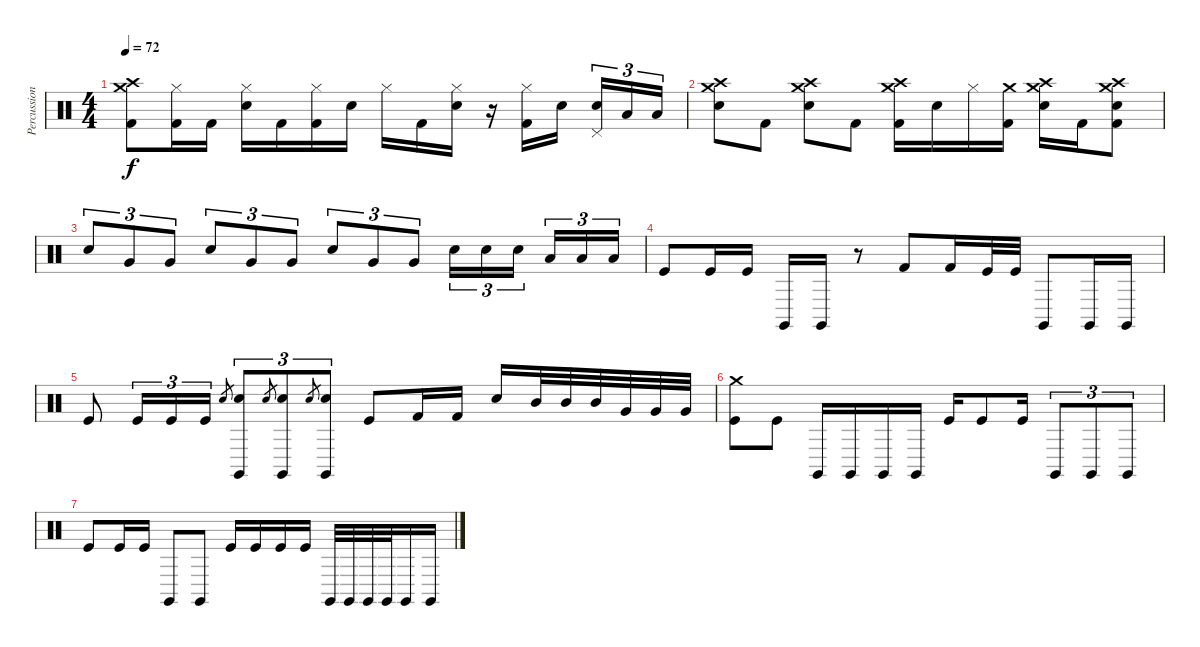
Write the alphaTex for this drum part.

\track ("Percussion" "Percussion") {instrument percussion}
\staff {score}
\articulation defaults
\ts (4 4)
\tempo 72
\clef neutral
\ks c
("Crash medium (hit)" "Crash high (hit)" "Kick (hit) 2").8{dy f} ("Hi-Hat (closed)" "Kick (hit) 2").16 "Kick (hit) 2".16 ("Hi-Hat (closed)" "Snare (hit) 2").16 "Kick (hit) 2".16 ("Hi-Hat (closed)" "Kick (hit) 2").16 "Snare (hit) 2".16 "Hi-Hat (closed)".16 "Kick (hit) 2".16 ("Hi-Hat (closed)" "Snare (hit) 2").16 r.16 ("Hi-Hat (closed)" "Kick (hit) 2").16 "Snare (hit) 2".16 ("Pedal Hi-Hat (hit)" "Snare (hit) 2").16{tu (3 2)} "Low Tom (hit)".16{tu (3 2)} "Low Tom (hit)".16{tu (3 2)} |
("Crash medium (hit)" "Crash high (hit)" "Snare (hit) 2").8 "Kick (hit) 2".8 ("Crash medium (hit)" "Crash high (hit)" "Snare (hit) 2").8 "Kick (hit) 2".8 ("Crash medium (hit)" "Crash high (hit)" "Kick (hit) 2").16 "Snare (hit) 2".16 "Hi-Hat (closed)".16 ("Crash medium (hit)" "Kick (hit) 2").16 ("Crash medium (hit)" "Crash high (hit)" "Snare (hit) 2").16 "Kick (hit) 2".16 ("Crash medium (hit)" "Crash high (hit)" "Snare (hit) 2" "Kick (hit) 2").8 |
"Snare (hit) 2".8{tu (3 2)} "Very Low Tom (hit)".8{tu (3 2)} "Very Low Tom (hit)".8{tu (3 2)} "Snare (hit) 2".8{tu (3 2)} "Very Low Tom (hit)".8{tu (3 2)} "Very Low Tom (hit)".8{tu (3 2)} "Snare (hit) 2".8{tu (3 2)} "Very Low Tom (hit)".8{tu (3 2)} "Very Low Tom (hit)".8{tu (3 2)} "Snare (hit) 2".16{tu (3 2)} "Snare (hit) 2".16{tu (3 2)} "Snare (hit) 2".16{tu (3 2)} "Low Tom (hit)".16{tu (3 2)} "Low Tom (hit)".16{tu (3 2)} "Low Tom (hit)".16{tu (3 2)} |
"Kick (hit)".8 "Kick (hit)".16 "Kick (hit)".16 "Claves (hit)".16 "Claves (hit)".16 r.8 "Kick (hit) 2".8 "Kick (hit) 2".16 "Kick (hit)".32 "Kick (hit)".32 "Claves (hit)".8 "Claves (hit)".16 "Claves (hit)".16 |
"Kick (hit)".8 "Kick (hit)".16{tu (3 2)} "Kick (hit)".16{tu (3 2)} "Kick (hit)".16{tu (3 2)} "Electric Snare (hit)".8{gr} ("Claves (hit)" "Electric Snare (hit)").8{tu (3 2)} "Electric Snare (hit)".8{gr} ("Claves (hit)" "Electric Snare (hit)").8{tu (3 2)} "Electric Snare (hit)".8{gr} ("Claves (hit)" "Electric Snare (hit)").8{tu (3 2)} "Kick (hit)".8 "Kick (hit) 2".16 "Kick (hit) 2".16 "Snare (hit) 2".16 "Mid Tom (hit)".32 "Mid Tom (hit)".32 "Mid Tom (hit)".32 "Very Low Tom (hit)".32 "Very Low Tom (hit)".32 "Very Low Tom (hit)".32 |
("Crash medium (hit)" "Kick (hit)").8 "Kick (hit)".8 "Claves (hit)".16 "Claves (hit)".16 "Claves (hit)".16 "Claves (hit)".16 "Kick (hit)".16 "Kick (hit)".8 "Kick (hit)".16 "Claves (hit)".8{tu (3 2)} "Claves (hit)".8{tu (3 2)} "Claves (hit)".8{tu (3 2)} |
"Kick (hit)".8 "Kick (hit)".16 "Kick (hit)".16 "Claves (hit)".8 "Claves (hit)".8 "Kick (hit)".16 "Kick (hit)".16 "Kick (hit)".16 "Kick (hit)".16 "Claves (hit)".32 "Claves (hit)".32 "Claves (hit)".32 "Claves (hit)".32 "Claves (hit)".16 "Claves (hit)".16
